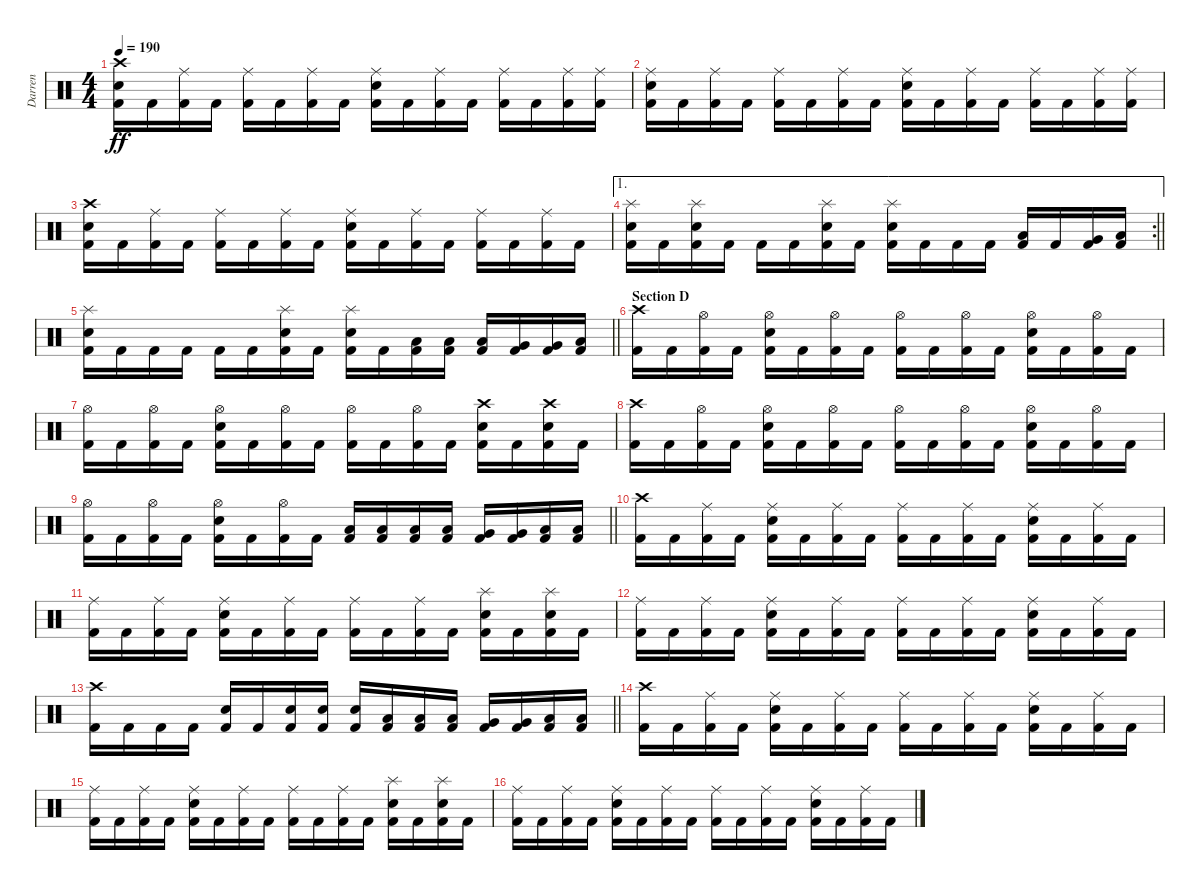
\track ("Darren" "Darren") {instrument percussion}
\staff {score}
\articulation defaults
\ts (4 4)
\tempo 190
\clef neutral
\ks c
("Crash high (hit)" "Electric Snare (hit)" "Kick (hit) 2").16{dy ff} "Kick (hit) 2".16 ("Ride (middle)" "Kick (hit) 2").16 "Kick (hit) 2".16 ("Ride (middle)" "Kick (hit) 2").16 "Kick (hit) 2".16 ("Ride (middle)" "Kick (hit) 2").16 "Kick (hit) 2".16 ("Ride (middle)" "Electric Snare (hit)" "Kick (hit) 2").16 "Kick (hit) 2".16 ("Ride (middle)" "Kick (hit) 2").16 "Kick (hit) 2".16 ("Ride (middle)" "Kick (hit) 2").16 "Kick (hit) 2".16 ("Ride (middle)" "Kick (hit) 2").16 ("Ride (middle)" "Kick (hit) 2").16 |
("Ride (middle)" "Electric Snare (hit)" "Kick (hit) 2").16 "Kick (hit) 2".16 ("Ride (middle)" "Kick (hit) 2").16 "Kick (hit) 2".16 ("Ride (middle)" "Kick (hit) 2").16 "Kick (hit) 2".16 ("Ride (middle)" "Kick (hit) 2").16 "Kick (hit) 2".16 ("Ride (middle)" "Electric Snare (hit)" "Kick (hit) 2").16 "Kick (hit) 2".16 ("Ride (middle)" "Kick (hit) 2").16 "Kick (hit) 2".16 ("Ride (middle)" "Kick (hit) 2").16 "Kick (hit) 2".16 ("Ride (middle)" "Kick (hit) 2").16 ("Ride (middle)" "Kick (hit) 2").16 |
("Crash high (hit)" "Electric Snare (hit)" "Kick (hit) 2").16 "Kick (hit) 2".16 ("Ride (middle)" "Kick (hit) 2").16 "Kick (hit) 2".16 ("Ride (middle)" "Kick (hit) 2").16 "Kick (hit) 2".16 ("Ride (middle)" "Kick (hit) 2").16 "Kick (hit) 2".16 ("Ride (middle)" "Electric Snare (hit)" "Kick (hit) 2").16 "Kick (hit) 2".16 ("Ride (middle)" "Kick (hit) 2").16 "Kick (hit) 2".16 ("Ride (middle)" "Kick (hit) 2").16 "Kick (hit) 2".16 ("Ride (middle)" "Kick (hit) 2").16 "Kick (hit) 2".16 |
\ae 1
\rc 2
\barLineRight lightlight
("Splash (hit)" "Electric Snare (hit)" "Kick (hit) 2").16 "Kick (hit) 2".16 ("Splash (hit)" "Electric Snare (hit)" "Kick (hit) 2").16 "Kick (hit) 2".16 "Kick (hit) 2".16 "Kick (hit) 2".16 ("Splash (hit)" "Electric Snare (hit)" "Kick (hit) 2").16 "Kick (hit) 2".16 ("Splash (hit)" "Electric Snare (hit)" "Kick (hit) 2").16 "Kick (hit) 2".16 "Kick (hit) 2".16 "Kick (hit) 2".16 ("Low Tom (hit)" "Kick (hit) 2").16 "Kick (hit) 2".16 ("Very Low Tom (hit)" "Kick (hit) 2").16 ("Low Floor Tom (hit)" "Kick (hit) 2").16 |
\barLineRight lightlight
("Splash (hit)" "Electric Snare (hit)" "Kick (hit) 2").16 "Kick (hit) 2".16 "Kick (hit) 2".16 "Kick (hit) 2".16 "Kick (hit) 2".16 "Kick (hit) 2".16 ("Splash (hit)" "Electric Snare (hit)" "Kick (hit) 2").16 "Kick (hit) 2".16 ("Splash (hit)" "Electric Snare (hit)" "Kick (hit) 2").16 "Kick (hit) 2".16 ("Low Tom (hit)" "Kick (hit) 2").16 ("Low Tom (hit)" "Kick (hit) 2").16 ("Low Tom (hit)" "Kick (hit) 2").16 ("Very Low Tom (hit)" "Kick (hit) 2").16 ("Very Low Tom (hit)" "Kick (hit) 2").16 ("Low Floor Tom (hit)" "Kick (hit) 2").16 |
\section ("" "Section D")
("Crash high (hit)" "Kick (hit) 2").16 "Kick (hit) 2".16 ("Hi-Hat (open)" "Kick (hit) 2").16 "Kick (hit) 2".16 ("Hi-Hat (open)" "Electric Snare (hit)" "Kick (hit) 2").16 "Kick (hit) 2".16 ("Hi-Hat (open)" "Kick (hit) 2").16 "Kick (hit) 2".16 ("Hi-Hat (open)" "Kick (hit) 2").16 "Kick (hit) 2".16 ("Hi-Hat (open)" "Kick (hit) 2").16 "Kick (hit) 2".16 ("Hi-Hat (open)" "Electric Snare (hit)" "Kick (hit) 2").16 "Kick (hit) 2".16 ("Hi-Hat (open)" "Kick (hit) 2").16 "Kick (hit) 2".16 |
("Hi-Hat (open)" "Kick (hit) 2").16 "Kick (hit) 2".16 ("Hi-Hat (open)" "Kick (hit) 2").16 "Kick (hit) 2".16 ("Hi-Hat (open)" "Electric Snare (hit)" "Kick (hit) 2").16 "Kick (hit) 2".16 ("Hi-Hat (open)" "Kick (hit) 2").16 "Kick (hit) 2".16 ("Hi-Hat (open)" "Kick (hit) 2").16 "Kick (hit) 2".16 ("Hi-Hat (open)" "Kick (hit) 2").16 "Kick (hit) 2".16 ("Crash high (hit)" "Electric Snare (hit)" "Kick (hit) 2").16 "Kick (hit) 2".16 ("Crash high (hit)" "Electric Snare (hit)" "Kick (hit) 2").16 "Kick (hit) 2".16 |
("Crash high (hit)" "Kick (hit) 2").16 "Kick (hit) 2".16 ("Hi-Hat (open)" "Kick (hit) 2").16 "Kick (hit) 2".16 ("Hi-Hat (open)" "Electric Snare (hit)" "Kick (hit) 2").16 "Kick (hit) 2".16 ("Hi-Hat (open)" "Kick (hit) 2").16 "Kick (hit) 2".16 ("Hi-Hat (open)" "Kick (hit) 2").16 "Kick (hit) 2".16 ("Hi-Hat (open)" "Kick (hit) 2").16 "Kick (hit) 2".16 ("Hi-Hat (open)" "Electric Snare (hit)" "Kick (hit) 2").16 "Kick (hit) 2".16 ("Hi-Hat (open)" "Kick (hit) 2").16 "Kick (hit) 2".16 |
\barLineRight lightlight
("Hi-Hat (open)" "Kick (hit) 2").16 "Kick (hit) 2".16 ("Hi-Hat (open)" "Kick (hit) 2").16 "Kick (hit) 2".16 ("Hi-Hat (open)" "Electric Snare (hit)" "Kick (hit) 2").16 "Kick (hit) 2".16 ("Hi-Hat (open)" "Kick (hit) 2").16 "Kick (hit) 2".16 ("Low Tom (hit)" "Kick (hit) 2").16 ("Low Tom (hit)" "Kick (hit) 2").16 ("Low Tom (hit)" "Kick (hit) 2").16 ("Low Tom (hit)" "Kick (hit) 2").16 ("Very Low Tom (hit)" "Kick (hit) 2").16 ("Very Low Tom (hit)" "Kick (hit) 2").16 ("Low Floor Tom (hit)" "Kick (hit) 2").16 ("Low Floor Tom (hit)" "Kick (hit) 2").16 |
("Crash high (hit)" "Kick (hit) 2").16 "Kick (hit) 2".16 ("Ride (middle)" "Kick (hit) 2").16 "Kick (hit) 2".16 ("Ride (middle)" "Electric Snare (hit)" "Kick (hit) 2").16 "Kick (hit) 2".16 ("Ride (middle)" "Kick (hit) 2").16 "Kick (hit) 2".16 ("Ride (middle)" "Kick (hit) 2").16 "Kick (hit) 2".16 ("Ride (middle)" "Kick (hit) 2").16 "Kick (hit) 2".16 ("Ride (middle)" "Electric Snare (hit)" "Kick (hit) 2").16 "Kick (hit) 2".16 ("Ride (middle)" "Kick (hit) 2").16 "Kick (hit) 2".16 |
("Ride (middle)" "Kick (hit) 2").16 "Kick (hit) 2".16 ("Ride (middle)" "Kick (hit) 2").16 "Kick (hit) 2".16 ("Ride (middle)" "Electric Snare (hit)" "Kick (hit) 2").16 "Kick (hit) 2".16 ("Ride (middle)" "Kick (hit) 2").16 "Kick (hit) 2".16 ("Ride (middle)" "Kick (hit) 2").16 "Kick (hit) 2".16 ("Ride (middle)" "Kick (hit) 2").16 "Kick (hit) 2".16 ("Splash (hit)" "Electric Snare (hit)" "Kick (hit) 2").16 "Kick (hit) 2".16 ("Splash (hit)" "Electric Snare (hit)" "Kick (hit) 2").16 "Kick (hit) 2".16 |
("Ride (middle)" "Kick (hit) 2").16 "Kick (hit) 2".16 ("Ride (middle)" "Kick (hit) 2").16 "Kick (hit) 2".16 ("Ride (middle)" "Electric Snare (hit)" "Kick (hit) 2").16 "Kick (hit) 2".16 ("Ride (middle)" "Kick (hit) 2").16 "Kick (hit) 2".16 ("Ride (middle)" "Kick (hit) 2").16 "Kick (hit) 2".16 ("Ride (middle)" "Kick (hit) 2").16 "Kick (hit) 2".16 ("Ride (middle)" "Electric Snare (hit)" "Kick (hit) 2").16 "Kick (hit) 2".16 ("Ride (middle)" "Kick (hit) 2").16 "Kick (hit) 2".16 |
\barLineRight lightlight
("Crash high (hit)" "Kick (hit) 2").16 "Kick (hit) 2".16 "Kick (hit) 2".16 "Kick (hit) 2".16 ("Electric Snare (hit)" "Kick (hit) 2").16 "Kick (hit) 2".16 ("Electric Snare (hit)" "Kick (hit) 2").16 ("Electric Snare (hit)" "Kick (hit) 2").16 ("Electric Snare (hit)" "Kick (hit) 2").16 ("Low Tom (hit)" "Kick (hit) 2").16 ("Low Tom (hit)" "Kick (hit) 2").16 ("Low Tom (hit)" "Kick (hit) 2").16 ("Very Low Tom (hit)" "Kick (hit) 2").16 ("Very Low Tom (hit)" "Kick (hit) 2").16 ("Low Floor Tom (hit)" "Kick (hit) 2").16 ("Low Floor Tom (hit)" "Kick (hit) 2").16 |
("Crash high (hit)" "Kick (hit) 2").16 "Kick (hit) 2".16 ("Ride (middle)" "Kick (hit) 2").16 "Kick (hit) 2".16 ("Ride (middle)" "Electric Snare (hit)" "Kick (hit) 2").16 "Kick (hit) 2".16 ("Ride (middle)" "Kick (hit) 2").16 "Kick (hit) 2".16 ("Ride (middle)" "Kick (hit) 2").16 "Kick (hit) 2".16 ("Ride (middle)" "Kick (hit) 2").16 "Kick (hit) 2".16 ("Ride (middle)" "Electric Snare (hit)" "Kick (hit) 2").16 "Kick (hit) 2".16 ("Ride (middle)" "Kick (hit) 2").16 "Kick (hit) 2".16 |
("Ride (middle)" "Kick (hit) 2").16 "Kick (hit) 2".16 ("Ride (middle)" "Kick (hit) 2").16 "Kick (hit) 2".16 ("Ride (middle)" "Electric Snare (hit)" "Kick (hit) 2").16 "Kick (hit) 2".16 ("Ride (middle)" "Kick (hit) 2").16 "Kick (hit) 2".16 ("Ride (middle)" "Kick (hit) 2").16 "Kick (hit) 2".16 ("Ride (middle)" "Kick (hit) 2").16 "Kick (hit) 2".16 ("Splash (hit)" "Electric Snare (hit)" "Kick (hit) 2").16 "Kick (hit) 2".16 ("Splash (hit)" "Electric Snare (hit)" "Kick (hit) 2").16 "Kick (hit) 2".16 |
("Ride (middle)" "Kick (hit) 2").16 "Kick (hit) 2".16 ("Ride (middle)" "Kick (hit) 2").16 "Kick (hit) 2".16 ("Ride (middle)" "Electric Snare (hit)" "Kick (hit) 2").16 "Kick (hit) 2".16 ("Ride (middle)" "Kick (hit) 2").16 "Kick (hit) 2".16 ("Ride (middle)" "Kick (hit) 2").16 "Kick (hit) 2".16 ("Ride (middle)" "Kick (hit) 2").16 "Kick (hit) 2".16 ("Ride (middle)" "Electric Snare (hit)" "Kick (hit) 2").16 "Kick (hit) 2".16 ("Ride (middle)" "Kick (hit) 2").16 "Kick (hit) 2".16
